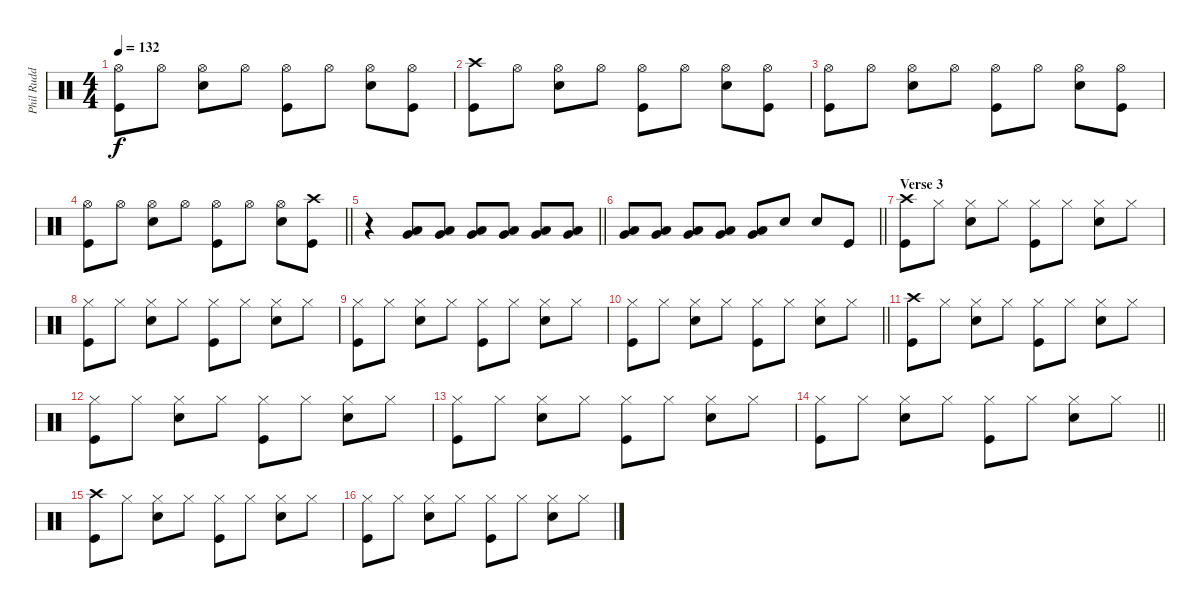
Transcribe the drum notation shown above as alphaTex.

\track ("Phil Rudd" "Phil Rudd") {instrument percussion}
\staff {score}
\articulation defaults
\ts (4 4)
\tempo 132
\clef neutral
\ks c
("Hi-Hat (open)" "Kick (hit)").8{dy f} "Hi-Hat (open)".8 ("Hi-Hat (open)" "Snare (hit) 2").8 "Hi-Hat (open)".8 ("Hi-Hat (open)" "Kick (hit)").8 "Hi-Hat (open)".8 ("Hi-Hat (open)" "Snare (hit) 2").8 ("Hi-Hat (open)" "Kick (hit)").8 |
("Crash high (hit)" "Kick (hit)").8 "Hi-Hat (open)".8 ("Hi-Hat (open)" "Snare (hit) 2").8 "Hi-Hat (open)".8 ("Hi-Hat (open)" "Kick (hit)").8 "Hi-Hat (open)".8 ("Hi-Hat (open)" "Snare (hit) 2").8 ("Hi-Hat (open)" "Kick (hit)").8 |
("Hi-Hat (open)" "Kick (hit)").8 "Hi-Hat (open)".8 ("Hi-Hat (open)" "Snare (hit) 2").8 "Hi-Hat (open)".8 ("Hi-Hat (open)" "Kick (hit)").8 "Hi-Hat (open)".8 ("Hi-Hat (open)" "Snare (hit) 2").8 ("Hi-Hat (open)" "Kick (hit)").8 |
\barLineRight lightlight
("Hi-Hat (open)" "Kick (hit)").8 "Hi-Hat (open)".8 ("Hi-Hat (open)" "Snare (hit) 2").8 "Hi-Hat (open)".8 ("Hi-Hat (open)" "Kick (hit)").8 "Hi-Hat (open)".8 ("Hi-Hat (open)" "Snare (hit) 2").8 ("Crash high (hit)" "Kick (hit)").8 |
\barLineRight lightlight
r.4 ("Low Tom (hit)" "Very Low Tom (hit)").8 ("Low Tom (hit)" "Very Low Tom (hit)").8 ("Low Tom (hit)" "Very Low Tom (hit)").8 ("Low Tom (hit)" "Very Low Tom (hit)").8 ("Low Tom (hit)" "Very Low Tom (hit)").8 ("Low Tom (hit)" "Very Low Tom (hit)").8 |
\barLineRight lightlight
("Low Tom (hit)" "Very Low Tom (hit)").8 ("Low Tom (hit)" "Very Low Tom (hit)").8 ("Low Tom (hit)" "Very Low Tom (hit)").8 ("Low Tom (hit)" "Very Low Tom (hit)").8 ("Low Tom (hit)" "Very Low Tom (hit)").8 "Snare (hit) 2".8 "Snare (hit) 2".8 "Kick (hit)".8 |
\section ("" "Verse 3")
("Crash high (hit)" "Kick (hit)").8 "Hi-Hat (closed)".8 ("Hi-Hat (closed)" "Snare (hit) 2").8 "Hi-Hat (closed)".8 ("Hi-Hat (closed)" "Kick (hit)").8 "Hi-Hat (closed)".8 ("Hi-Hat (closed)" "Snare (hit) 2").8 "Hi-Hat (closed)".8 |
("Hi-Hat (closed)" "Kick (hit)").8 "Hi-Hat (closed)".8 ("Hi-Hat (closed)" "Snare (hit) 2").8 "Hi-Hat (closed)".8 ("Hi-Hat (closed)" "Kick (hit)").8 "Hi-Hat (closed)".8 ("Hi-Hat (closed)" "Snare (hit) 2").8 "Hi-Hat (closed)".8 |
("Hi-Hat (closed)" "Kick (hit)").8 "Hi-Hat (closed)".8 ("Hi-Hat (closed)" "Snare (hit) 2").8 "Hi-Hat (closed)".8 ("Hi-Hat (closed)" "Kick (hit)").8 "Hi-Hat (closed)".8 ("Hi-Hat (closed)" "Snare (hit) 2").8 "Hi-Hat (closed)".8 |
\barLineRight lightlight
("Hi-Hat (closed)" "Kick (hit)").8 "Hi-Hat (closed)".8 ("Hi-Hat (closed)" "Snare (hit) 2").8 "Hi-Hat (closed)".8 ("Hi-Hat (closed)" "Kick (hit)").8 "Hi-Hat (closed)".8 ("Hi-Hat (closed)" "Snare (hit) 2").8 "Hi-Hat (closed)".8 |
("Crash high (hit)" "Kick (hit)").8 "Hi-Hat (closed)".8 ("Hi-Hat (closed)" "Snare (hit) 2").8 "Hi-Hat (closed)".8 ("Hi-Hat (closed)" "Kick (hit)").8 "Hi-Hat (closed)".8 ("Hi-Hat (closed)" "Snare (hit) 2").8 "Hi-Hat (closed)".8 |
("Hi-Hat (closed)" "Kick (hit)").8 "Hi-Hat (closed)".8 ("Hi-Hat (closed)" "Snare (hit) 2").8 "Hi-Hat (closed)".8 ("Hi-Hat (closed)" "Kick (hit)").8 "Hi-Hat (closed)".8 ("Hi-Hat (closed)" "Snare (hit) 2").8 "Hi-Hat (closed)".8 |
("Hi-Hat (closed)" "Kick (hit)").8 "Hi-Hat (closed)".8 ("Hi-Hat (closed)" "Snare (hit) 2").8 "Hi-Hat (closed)".8 ("Hi-Hat (closed)" "Kick (hit)").8 "Hi-Hat (closed)".8 ("Hi-Hat (closed)" "Snare (hit) 2").8 "Hi-Hat (closed)".8 |
\barLineRight lightlight
("Hi-Hat (closed)" "Kick (hit)").8 "Hi-Hat (closed)".8 ("Hi-Hat (closed)" "Snare (hit) 2").8 "Hi-Hat (closed)".8 ("Hi-Hat (closed)" "Kick (hit)").8 "Hi-Hat (closed)".8 ("Hi-Hat (closed)" "Snare (hit) 2").8 "Hi-Hat (closed)".8 |
("Crash high (hit)" "Kick (hit)").8 "Hi-Hat (closed)".8 ("Hi-Hat (closed)" "Snare (hit) 2").8 "Hi-Hat (closed)".8 ("Hi-Hat (closed)" "Kick (hit)").8 "Hi-Hat (closed)".8 ("Hi-Hat (closed)" "Snare (hit) 2").8 "Hi-Hat (closed)".8 |
("Hi-Hat (closed)" "Kick (hit)").8 "Hi-Hat (closed)".8 ("Hi-Hat (closed)" "Snare (hit) 2").8 "Hi-Hat (closed)".8 ("Hi-Hat (closed)" "Kick (hit)").8 "Hi-Hat (closed)".8 ("Hi-Hat (closed)" "Snare (hit) 2").8 "Hi-Hat (closed)".8
